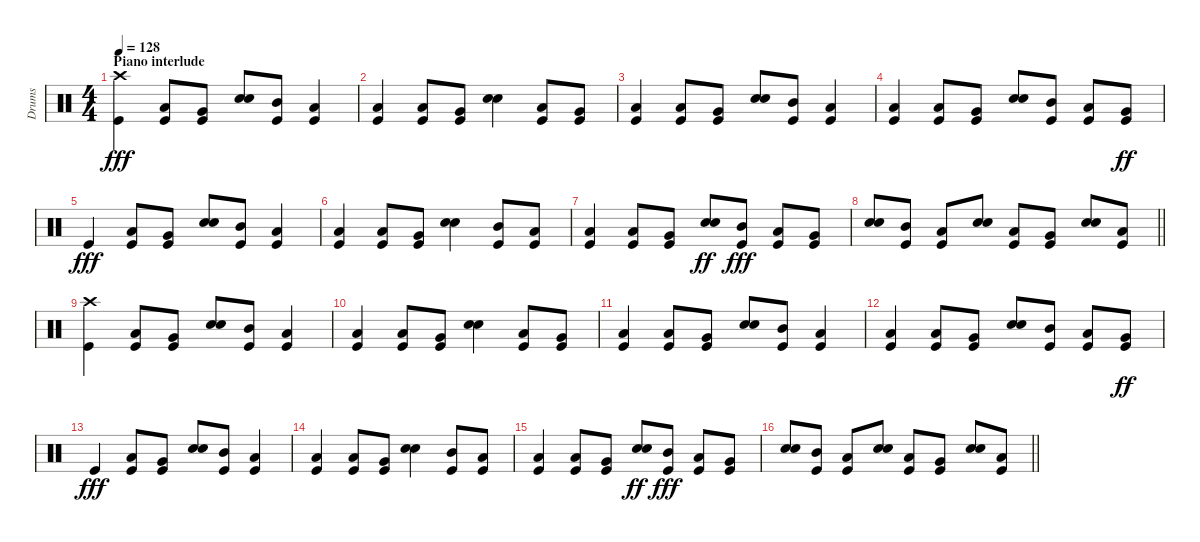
\track ("Drums" "Drums") {instrument percussion}
\staff {score}
\articulation defaults
\ts (4 4)
\section ("" "Piano interlude")
\tempo 128
\clef neutral
\ks c
("Crash high (hit)" "Kick (hit)").4{dy fff} ("Low Tom (hit)" "Kick (hit)").8 ("Very Low Tom (hit)" "Kick (hit)").8 ("Snare (hit) 2" "Electric Snare (hit)").8 ("Mid Tom (hit)" "Kick (hit)").8 ("Low Tom (hit)" "Kick (hit)").4 |
("Low Tom (hit)" "Kick (hit)").4 ("Low Tom (hit)" "Kick (hit)").8 ("Very Low Tom (hit)" "Kick (hit)").8 ("Snare (hit) 2" "Electric Snare (hit)").4 ("Low Tom (hit)" "Kick (hit)").8 ("Very Low Tom (hit)" "Kick (hit)").8 |
("Low Tom (hit)" "Kick (hit)").4 ("Low Tom (hit)" "Kick (hit)").8 ("Very Low Tom (hit)" "Kick (hit)").8 ("Snare (hit) 2" "Electric Snare (hit)").8 ("Mid Tom (hit)" "Kick (hit)").8 ("Low Tom (hit)" "Kick (hit)").4 |
("Low Tom (hit)" "Kick (hit)").4 ("Low Tom (hit)" "Kick (hit)").8 ("Very Low Tom (hit)" "Kick (hit)").8 ("Snare (hit) 2" "Electric Snare (hit)").8 ("Mid Tom (hit)" "Kick (hit)").8 ("Low Tom (hit)" "Kick (hit)").8 ("Very Low Tom (hit)" "Kick (hit)").8{dy ff} |
"Kick (hit)".4{dy fff} ("Low Tom (hit)" "Kick (hit)").8 ("Very Low Tom (hit)" "Kick (hit)").8 ("Snare (hit) 2" "Electric Snare (hit)").8 ("Mid Tom (hit)" "Kick (hit)").8 ("Low Tom (hit)" "Kick (hit)").4 |
("Low Tom (hit)" "Kick (hit)").4 ("Low Tom (hit)" "Kick (hit)").8 ("Very Low Tom (hit)" "Kick (hit)").8 ("Snare (hit) 2" "Electric Snare (hit)").4 ("Mid Tom (hit)" "Kick (hit)").8 ("Low Tom (hit)" "Kick (hit)").8 |
("Low Tom (hit)" "Kick (hit)").4 ("Low Tom (hit)" "Kick (hit)").8 ("Very Low Tom (hit)" "Kick (hit)").8 ("Snare (hit) 2" "Electric Snare (hit)").8{dy ff} ("Mid Tom (hit)" "Kick (hit)").8{dy fff} ("Low Tom (hit)" "Kick (hit)").8 ("Very Low Tom (hit)" "Kick (hit)").8 |
\barLineRight lightlight
("Snare (hit) 2" "Electric Snare (hit)").8 ("Mid Tom (hit)" "Kick (hit)").8 ("Low Tom (hit)" "Kick (hit)").8 ("Snare (hit) 2" "Electric Snare (hit)").8 ("Low Tom (hit)" "Kick (hit)").8 ("Very Low Tom (hit)" "Kick (hit)").8 ("Snare (hit) 2" "Electric Snare (hit)").8 ("Low Tom (hit)" "Kick (hit)").8 |
("Crash high (hit)" "Kick (hit)").4 ("Low Tom (hit)" "Kick (hit)").8 ("Very Low Tom (hit)" "Kick (hit)").8 ("Snare (hit) 2" "Electric Snare (hit)").8 ("Mid Tom (hit)" "Kick (hit)").8 ("Low Tom (hit)" "Kick (hit)").4 |
("Low Tom (hit)" "Kick (hit)").4 ("Low Tom (hit)" "Kick (hit)").8 ("Very Low Tom (hit)" "Kick (hit)").8 ("Snare (hit) 2" "Electric Snare (hit)").4 ("Low Tom (hit)" "Kick (hit)").8 ("Very Low Tom (hit)" "Kick (hit)").8 |
("Low Tom (hit)" "Kick (hit)").4 ("Low Tom (hit)" "Kick (hit)").8 ("Very Low Tom (hit)" "Kick (hit)").8 ("Snare (hit) 2" "Electric Snare (hit)").8 ("Mid Tom (hit)" "Kick (hit)").8 ("Low Tom (hit)" "Kick (hit)").4 |
("Low Tom (hit)" "Kick (hit)").4 ("Low Tom (hit)" "Kick (hit)").8 ("Very Low Tom (hit)" "Kick (hit)").8 ("Snare (hit) 2" "Electric Snare (hit)").8 ("Mid Tom (hit)" "Kick (hit)").8 ("Low Tom (hit)" "Kick (hit)").8 ("Very Low Tom (hit)" "Kick (hit)").8{dy ff} |
"Kick (hit)".4{dy fff} ("Low Tom (hit)" "Kick (hit)").8 ("Very Low Tom (hit)" "Kick (hit)").8 ("Snare (hit) 2" "Electric Snare (hit)").8 ("Mid Tom (hit)" "Kick (hit)").8 ("Low Tom (hit)" "Kick (hit)").4 |
("Low Tom (hit)" "Kick (hit)").4 ("Low Tom (hit)" "Kick (hit)").8 ("Very Low Tom (hit)" "Kick (hit)").8 ("Snare (hit) 2" "Electric Snare (hit)").4 ("Mid Tom (hit)" "Kick (hit)").8 ("Low Tom (hit)" "Kick (hit)").8 |
("Low Tom (hit)" "Kick (hit)").4 ("Low Tom (hit)" "Kick (hit)").8 ("Very Low Tom (hit)" "Kick (hit)").8 ("Snare (hit) 2" "Electric Snare (hit)").8{dy ff} ("Mid Tom (hit)" "Kick (hit)").8{dy fff} ("Low Tom (hit)" "Kick (hit)").8 ("Very Low Tom (hit)" "Kick (hit)").8 |
\barLineRight lightlight
("Snare (hit) 2" "Electric Snare (hit)").8 ("Mid Tom (hit)" "Kick (hit)").8 ("Low Tom (hit)" "Kick (hit)").8 ("Snare (hit) 2" "Electric Snare (hit)").8 ("Low Tom (hit)" "Kick (hit)").8 ("Very Low Tom (hit)" "Kick (hit)").8 ("Snare (hit) 2" "Electric Snare (hit)").8 ("Low Tom (hit)" "Kick (hit)").8
